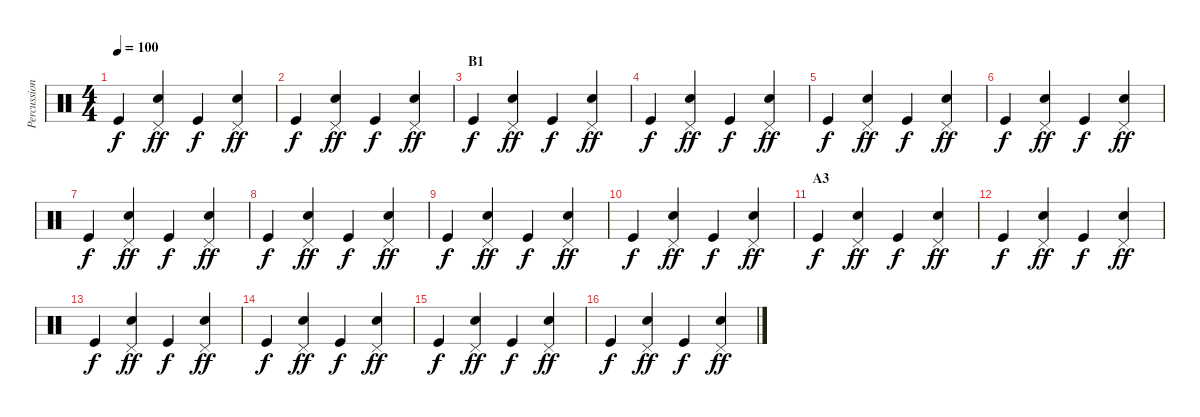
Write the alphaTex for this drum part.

\track ("Percussion" "Percussion") {instrument percussion}
\staff {score}
\articulation defaults
\ts (4 4)
\tempo 100
\clef neutral
\ks c "Kick (hit)".4{dy f}
("Snare (hit) 2" "Pedal Hi-Hat (hit)").4{dy ff} "Kick (hit)".4{dy f} ("Snare (hit) 2" "Pedal Hi-Hat (hit)").4{dy ff} |
"Kick (hit)".4{dy f} ("Snare (hit) 2" "Pedal Hi-Hat (hit)").4{dy ff} "Kick (hit)".4{dy f} ("Snare (hit) 2" "Pedal Hi-Hat (hit)").4{dy ff} |
\section ("" "B1")
"Kick (hit)".4{dy f} ("Snare (hit) 2" "Pedal Hi-Hat (hit)").4{dy ff} "Kick (hit)".4{dy f} ("Snare (hit) 2" "Pedal Hi-Hat (hit)").4{dy ff} |
"Kick (hit)".4{dy f} ("Snare (hit) 2" "Pedal Hi-Hat (hit)").4{dy ff} "Kick (hit)".4{dy f} ("Snare (hit) 2" "Pedal Hi-Hat (hit)").4{dy ff} |
"Kick (hit)".4{dy f} ("Snare (hit) 2" "Pedal Hi-Hat (hit)").4{dy ff} "Kick (hit)".4{dy f} ("Snare (hit) 2" "Pedal Hi-Hat (hit)").4{dy ff} |
"Kick (hit)".4{dy f} ("Snare (hit) 2" "Pedal Hi-Hat (hit)").4{dy ff} "Kick (hit)".4{dy f} ("Snare (hit) 2" "Pedal Hi-Hat (hit)").4{dy ff} |
"Kick (hit)".4{dy f} ("Snare (hit) 2" "Pedal Hi-Hat (hit)").4{dy ff} "Kick (hit)".4{dy f} ("Snare (hit) 2" "Pedal Hi-Hat (hit)").4{dy ff} |
"Kick (hit)".4{dy f} ("Snare (hit) 2" "Pedal Hi-Hat (hit)").4{dy ff} "Kick (hit)".4{dy f} ("Snare (hit) 2" "Pedal Hi-Hat (hit)").4{dy ff} |
"Kick (hit)".4{dy f} ("Snare (hit) 2" "Pedal Hi-Hat (hit)").4{dy ff} "Kick (hit)".4{dy f} ("Snare (hit) 2" "Pedal Hi-Hat (hit)").4{dy ff} |
"Kick (hit)".4{dy f} ("Snare (hit) 2" "Pedal Hi-Hat (hit)").4{dy ff} "Kick (hit)".4{dy f} ("Snare (hit) 2" "Pedal Hi-Hat (hit)").4{dy ff} |
\section ("" "A3")
"Kick (hit)".4{dy f} ("Snare (hit) 2" "Pedal Hi-Hat (hit)").4{dy ff} "Kick (hit)".4{dy f} ("Snare (hit) 2" "Pedal Hi-Hat (hit)").4{dy ff} |
"Kick (hit)".4{dy f} ("Snare (hit) 2" "Pedal Hi-Hat (hit)").4{dy ff} "Kick (hit)".4{dy f} ("Snare (hit) 2" "Pedal Hi-Hat (hit)").4{dy ff} |
"Kick (hit)".4{dy f} ("Snare (hit) 2" "Pedal Hi-Hat (hit)").4{dy ff} "Kick (hit)".4{dy f} ("Snare (hit) 2" "Pedal Hi-Hat (hit)").4{dy ff} |
"Kick (hit)".4{dy f} ("Snare (hit) 2" "Pedal Hi-Hat (hit)").4{dy ff} "Kick (hit)".4{dy f} ("Snare (hit) 2" "Pedal Hi-Hat (hit)").4{dy ff} |
"Kick (hit)".4{dy f} ("Snare (hit) 2" "Pedal Hi-Hat (hit)").4{dy ff} "Kick (hit)".4{dy f} ("Snare (hit) 2" "Pedal Hi-Hat (hit)").4{dy ff} |
"Kick (hit)".4{dy f} ("Snare (hit) 2" "Pedal Hi-Hat (hit)").4{dy ff} "Kick (hit)".4{dy f} ("Snare (hit) 2" "Pedal Hi-Hat (hit)").4{dy ff}
